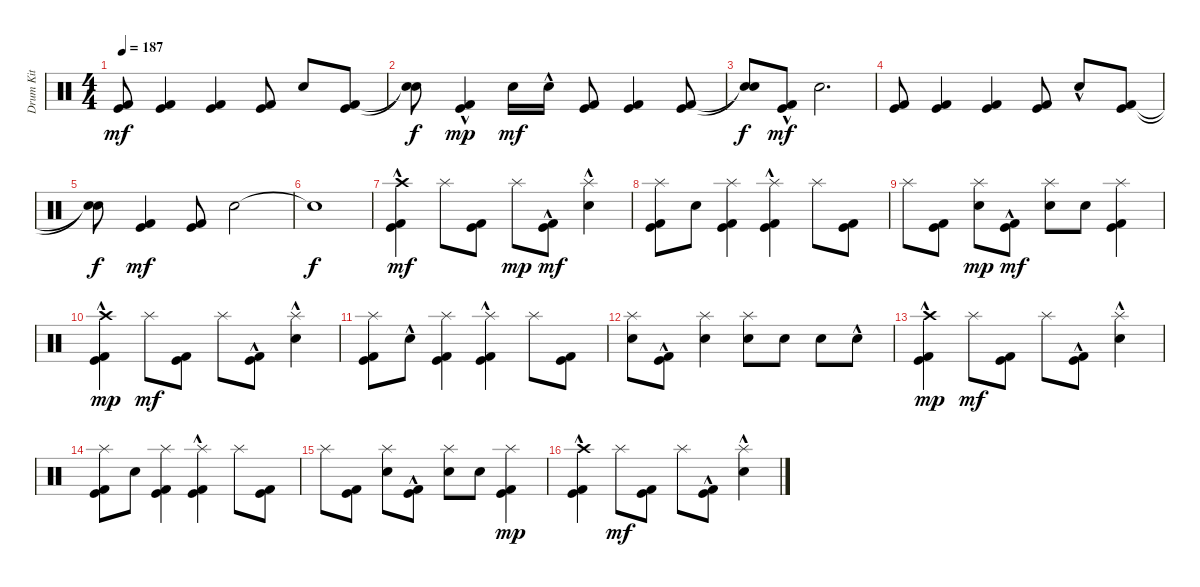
\track ("Drum Kit" "Drum Kit") {instrument percussion}
\staff {score}
\articulation defaults
\ts (4 4)
\tempo 187
\clef neutral
\ks c
("Kick (hit) 2" "Kick (hit)").8{dy mf} ("Kick (hit) 2" "Kick (hit)").4 ("Kick (hit) 2" "Kick (hit)").4 ("Kick (hit) 2" "Kick (hit)").8 "Electric Snare (hit)".8 ("Kick (hit) 2" "Kick (hit)").8 |
("Snare (hit)"{t} "Snare (hit)"{t}).8{dy f} ("Kick (hit) 2"{hac} "Kick (hit)"{hac}).4{dy mp} "Electric Snare (hit)".16{dy mf} "Electric Snare (hit)"{hac}.16 ("Kick (hit) 2" "Kick (hit)").8 ("Kick (hit) 2" "Kick (hit)").4 ("Kick (hit) 2" "Kick (hit)").8 |
("Snare (hit)"{t} "Snare (hit)"{t}).8{dy f} ("Kick (hit) 2"{hac} "Kick (hit)"{hac}).8{dy mf} "Electric Snare (hit)".2{d} |
("Kick (hit) 2" "Kick (hit)").8 ("Kick (hit) 2" "Kick (hit)").4 ("Kick (hit) 2" "Kick (hit)").4 ("Kick (hit) 2" "Kick (hit)").8 "Electric Snare (hit)"{hac}.8 ("Kick (hit) 2" "Kick (hit)").8 |
("Snare (hit)"{t} "Snare (hit)"{t}).8{dy f} ("Kick (hit) 2" "Kick (hit)").4{dy mf} ("Kick (hit) 2" "Kick (hit)").8 "Electric Snare (hit)".2 |
"Snare (hit)"{t}.1{dy f} |
("Kick (hit) 2"{hac} "Kick (hit)"{hac} "Crash high (hit)").4{dy mf} "Splash (hit)".8 ("Kick (hit) 2" "Kick (hit)").8 "Splash (hit)".8{dy mp} ("Kick (hit) 2"{hac} "Kick (hit)"{hac}).8{dy mf} ("Electric Snare (hit)"{hac} "Splash (hit)").4 |
("Kick (hit) 2" "Kick (hit)" "Splash (hit)").8 "Electric Snare (hit)".8 ("Kick (hit) 2" "Kick (hit)" "Splash (hit)").4 ("Kick (hit) 2"{hac} "Kick (hit)"{hac} "Splash (hit)").4 "Splash (hit)".8 ("Kick (hit) 2" "Kick (hit)").8 |
"Splash (hit)".8 ("Kick (hit) 2" "Kick (hit)").8 ("Electric Snare (hit)" "Splash (hit)").8{dy mp} ("Kick (hit) 2"{hac} "Kick (hit)"{hac}).8{dy mf} ("Electric Snare (hit)" "Splash (hit)").8 "Electric Snare (hit)".8 ("Kick (hit) 2" "Kick (hit)" "Splash (hit)").4 |
("Kick (hit) 2"{hac} "Kick (hit)"{hac} "Crash high (hit)").4{dy mp} "Splash (hit)".8{dy mf} ("Kick (hit) 2" "Kick (hit)").8 "Splash (hit)".8 ("Kick (hit) 2"{hac} "Kick (hit)"{hac}).8 ("Electric Snare (hit)"{hac} "Splash (hit)").4 |
("Kick (hit) 2" "Kick (hit)" "Splash (hit)").8 "Electric Snare (hit)"{hac}.8 ("Kick (hit) 2" "Kick (hit)" "Splash (hit)").4 ("Kick (hit) 2"{hac} "Kick (hit)"{hac} "Splash (hit)").4 "Splash (hit)".8 ("Kick (hit) 2" "Kick (hit)").8 |
("Electric Snare (hit)" "Splash (hit)").8 ("Kick (hit) 2"{hac} "Kick (hit)"{hac}).8 ("Electric Snare (hit)" "Splash (hit)").4 ("Electric Snare (hit)" "Splash (hit)").8 "Electric Snare (hit)".8 "Electric Snare (hit)".8 "Electric Snare (hit)"{hac}.8 |
("Kick (hit) 2"{hac} "Kick (hit)"{hac} "Crash high (hit)").4{dy mp} "Splash (hit)".8{dy mf} ("Kick (hit) 2" "Kick (hit)").8 "Splash (hit)".8 ("Kick (hit) 2"{hac} "Kick (hit)"{hac}).8 ("Electric Snare (hit)"{hac} "Splash (hit)").4 |
("Kick (hit) 2" "Kick (hit)" "Splash (hit)").8 "Electric Snare (hit)".8 ("Kick (hit) 2" "Kick (hit)" "Splash (hit)").4 ("Kick (hit) 2"{hac} "Kick (hit)"{hac} "Splash (hit)").4 "Splash (hit)".8 ("Kick (hit) 2" "Kick (hit)").8 |
"Splash (hit)".8 ("Kick (hit) 2" "Kick (hit)").8 ("Electric Snare (hit)" "Splash (hit)").8 ("Kick (hit) 2"{hac} "Kick (hit)"{hac}).8 ("Electric Snare (hit)" "Splash (hit)").8 "Electric Snare (hit)".8 ("Kick (hit) 2" "Kick (hit)" "Splash (hit)").4{dy mp} |
("Kick (hit) 2"{hac} "Kick (hit)"{hac} "Crash high (hit)").4 "Splash (hit)".8{dy mf} ("Kick (hit) 2" "Kick (hit)").8 "Splash (hit)".8 ("Kick (hit) 2"{hac} "Kick (hit)"{hac}).8 ("Electric Snare (hit)"{hac} "Splash (hit)").4
